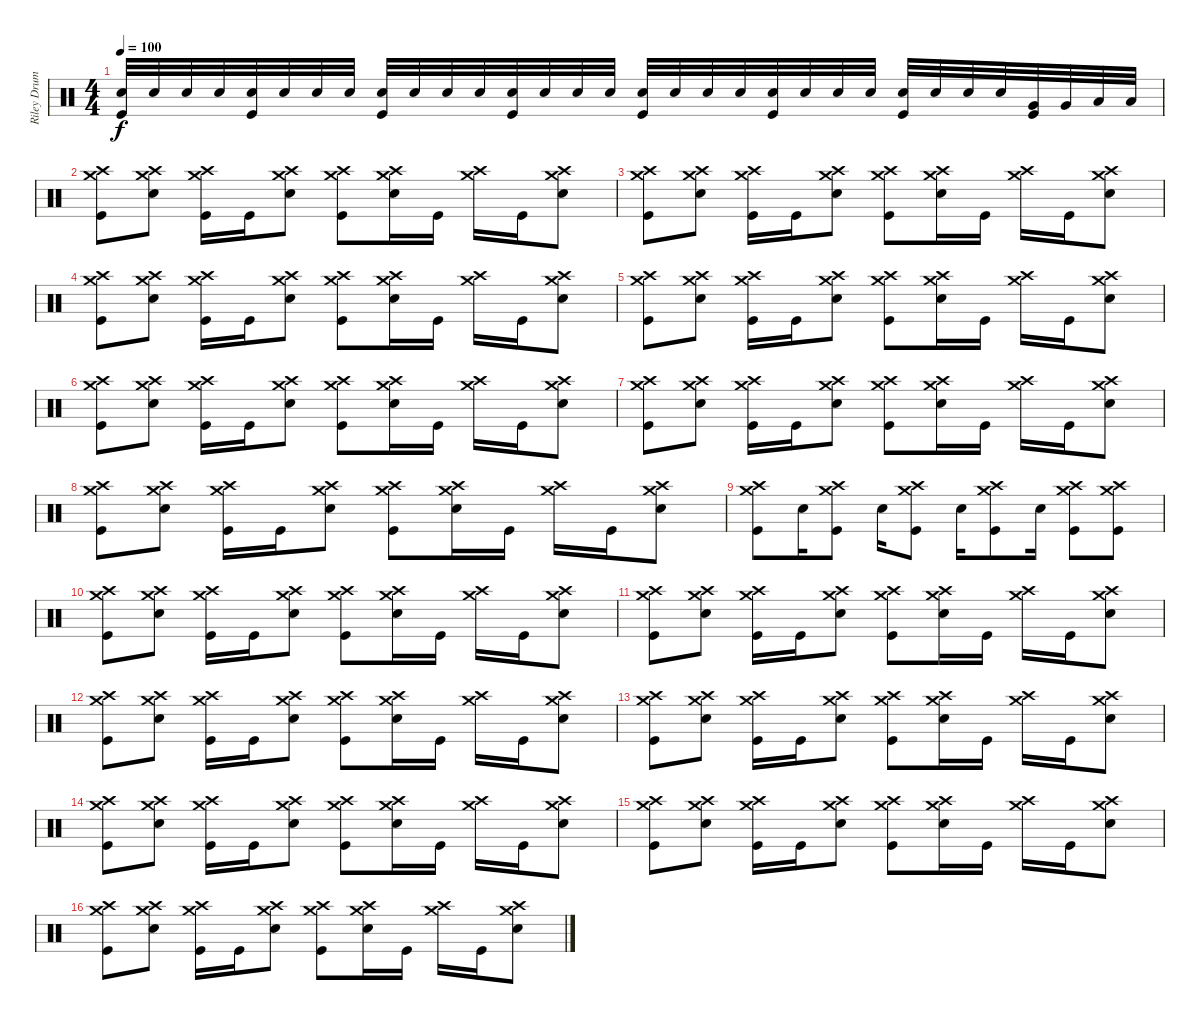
\track ("Riley Drums" "Riley Drum") {instrument percussion}
\staff {score}
\articulation defaults
\ts (4 4)
\tempo 100
\clef neutral
\ks c
("Electric Snare (hit)" "Kick (hit)").32{dy f} "Electric Snare (hit)".32 "Electric Snare (hit)".32 "Electric Snare (hit)".32 ("Electric Snare (hit)" "Kick (hit)").32 "Electric Snare (hit)".32 "Electric Snare (hit)".32 "Electric Snare (hit)".32 ("Electric Snare (hit)" "Kick (hit)").32 "Electric Snare (hit)".32 "Electric Snare (hit)".32 "Electric Snare (hit)".32 ("Electric Snare (hit)" "Kick (hit)").32 "Electric Snare (hit)".32 "Electric Snare (hit)".32 "Electric Snare (hit)".32 ("Electric Snare (hit)" "Kick (hit)").32 "Electric Snare (hit)".32 "Electric Snare (hit)".32 "Electric Snare (hit)".32 ("Electric Snare (hit)" "Kick (hit)").32 "Electric Snare (hit)".32 "Electric Snare (hit)".32 "Electric Snare (hit)".32 ("Electric Snare (hit)" "Kick (hit)").32 "Electric Snare (hit)".32 "Electric Snare (hit)".32 "Electric Snare (hit)".32 ("Very Low Tom (hit)" "Kick (hit)").32 "Very Low Tom (hit)".32 "Low Floor Tom (hit)".32 "Low Floor Tom (hit)".32 |
\section ("" "")
("Crash medium (hit)" "Crash high (hit)" "Kick (hit)").8 ("Crash medium (hit)" "Crash high (hit)" "Electric Snare (hit)").8 ("Crash medium (hit)" "Crash high (hit)" "Kick (hit)").16 "Kick (hit)".16 ("Crash medium (hit)" "Crash high (hit)" "Electric Snare (hit)").8 ("Crash medium (hit)" "Crash high (hit)" "Kick (hit)").8 ("Crash medium (hit)" "Crash high (hit)" "Electric Snare (hit)").16 "Kick (hit)".16 ("Crash medium (hit)" "Crash high (hit)").16 "Kick (hit)".16 ("Crash medium (hit)" "Crash high (hit)" "Electric Snare (hit)").8 |
("Crash medium (hit)" "Crash high (hit)" "Kick (hit)").8 ("Crash medium (hit)" "Crash high (hit)" "Electric Snare (hit)").8 ("Crash medium (hit)" "Crash high (hit)" "Kick (hit)").16 "Kick (hit)".16 ("Crash medium (hit)" "Crash high (hit)" "Electric Snare (hit)").8 ("Crash medium (hit)" "Crash high (hit)" "Kick (hit)").8 ("Crash medium (hit)" "Crash high (hit)" "Electric Snare (hit)").16 "Kick (hit)".16 ("Crash medium (hit)" "Crash high (hit)").16 "Kick (hit)".16 ("Crash medium (hit)" "Crash high (hit)" "Electric Snare (hit)").8 |
("Crash medium (hit)" "Crash high (hit)" "Kick (hit)").8 ("Crash medium (hit)" "Crash high (hit)" "Electric Snare (hit)").8 ("Crash medium (hit)" "Crash high (hit)" "Kick (hit)").16 "Kick (hit)".16 ("Crash medium (hit)" "Crash high (hit)" "Electric Snare (hit)").8 ("Crash medium (hit)" "Crash high (hit)" "Kick (hit)").8 ("Crash medium (hit)" "Crash high (hit)" "Electric Snare (hit)").16 "Kick (hit)".16 ("Crash medium (hit)" "Crash high (hit)").16 "Kick (hit)".16 ("Crash medium (hit)" "Crash high (hit)" "Electric Snare (hit)").8 |
("Crash medium (hit)" "Crash high (hit)" "Kick (hit)").8 ("Crash medium (hit)" "Crash high (hit)" "Electric Snare (hit)").8 ("Crash medium (hit)" "Crash high (hit)" "Kick (hit)").16 "Kick (hit)".16 ("Crash medium (hit)" "Crash high (hit)" "Electric Snare (hit)").8 ("Crash medium (hit)" "Crash high (hit)" "Kick (hit)").8 ("Crash medium (hit)" "Crash high (hit)" "Electric Snare (hit)").16 "Kick (hit)".16 ("Crash medium (hit)" "Crash high (hit)").16 "Kick (hit)".16 ("Crash medium (hit)" "Crash high (hit)" "Electric Snare (hit)").8 |
("Crash medium (hit)" "Crash high (hit)" "Kick (hit)").8 ("Crash medium (hit)" "Crash high (hit)" "Electric Snare (hit)").8 ("Crash medium (hit)" "Crash high (hit)" "Kick (hit)").16 "Kick (hit)".16 ("Crash medium (hit)" "Crash high (hit)" "Electric Snare (hit)").8 ("Crash medium (hit)" "Crash high (hit)" "Kick (hit)").8 ("Crash medium (hit)" "Crash high (hit)" "Electric Snare (hit)").16 "Kick (hit)".16 ("Crash medium (hit)" "Crash high (hit)").16 "Kick (hit)".16 ("Crash medium (hit)" "Crash high (hit)" "Electric Snare (hit)").8 |
("Crash medium (hit)" "Crash high (hit)" "Kick (hit)").8 ("Crash medium (hit)" "Crash high (hit)" "Electric Snare (hit)").8 ("Crash medium (hit)" "Crash high (hit)" "Kick (hit)").16 "Kick (hit)".16 ("Crash medium (hit)" "Crash high (hit)" "Electric Snare (hit)").8 ("Crash medium (hit)" "Crash high (hit)" "Kick (hit)").8 ("Crash medium (hit)" "Crash high (hit)" "Electric Snare (hit)").16 "Kick (hit)".16 ("Crash medium (hit)" "Crash high (hit)").16 "Kick (hit)".16 ("Crash medium (hit)" "Crash high (hit)" "Electric Snare (hit)").8 |
("Crash medium (hit)" "Crash high (hit)" "Kick (hit)").8 ("Crash medium (hit)" "Crash high (hit)" "Electric Snare (hit)").8 ("Crash medium (hit)" "Crash high (hit)" "Kick (hit)").16 "Kick (hit)".16 ("Crash medium (hit)" "Crash high (hit)" "Electric Snare (hit)").8 ("Crash medium (hit)" "Crash high (hit)" "Kick (hit)").8 ("Crash medium (hit)" "Crash high (hit)" "Electric Snare (hit)").16 "Kick (hit)".16 ("Crash medium (hit)" "Crash high (hit)").16 "Kick (hit)".16 ("Crash medium (hit)" "Crash high (hit)" "Electric Snare (hit)").8 |
("Crash medium (hit)" "Crash high (hit)" "Kick (hit)").8 "Electric Snare (hit)".16 ("Crash medium (hit)" "Crash high (hit)" "Kick (hit)").8 "Electric Snare (hit)".16 ("Crash medium (hit)" "Crash high (hit)" "Kick (hit)").8 "Electric Snare (hit)".16 ("Crash medium (hit)" "Crash high (hit)" "Kick (hit)").8 "Electric Snare (hit)".16 ("Crash medium (hit)" "Crash high (hit)" "Kick (hit)").8 ("Crash medium (hit)" "Crash high (hit)" "Kick (hit)").8 |
("Crash medium (hit)" "Crash high (hit)" "Kick (hit)").8 ("Crash medium (hit)" "Crash high (hit)" "Electric Snare (hit)").8 ("Crash medium (hit)" "Crash high (hit)" "Kick (hit)").16 "Kick (hit)".16 ("Crash medium (hit)" "Crash high (hit)" "Electric Snare (hit)").8 ("Crash medium (hit)" "Crash high (hit)" "Kick (hit)").8 ("Crash medium (hit)" "Crash high (hit)" "Electric Snare (hit)").16 "Kick (hit)".16 ("Crash medium (hit)" "Crash high (hit)").16 "Kick (hit)".16 ("Crash medium (hit)" "Crash high (hit)" "Electric Snare (hit)").8 |
("Crash medium (hit)" "Crash high (hit)" "Kick (hit)").8 ("Crash medium (hit)" "Crash high (hit)" "Electric Snare (hit)").8 ("Crash medium (hit)" "Crash high (hit)" "Kick (hit)").16 "Kick (hit)".16 ("Crash medium (hit)" "Crash high (hit)" "Electric Snare (hit)").8 ("Crash medium (hit)" "Crash high (hit)" "Kick (hit)").8 ("Crash medium (hit)" "Crash high (hit)" "Electric Snare (hit)").16 "Kick (hit)".16 ("Crash medium (hit)" "Crash high (hit)").16 "Kick (hit)".16 ("Crash medium (hit)" "Crash high (hit)" "Electric Snare (hit)").8 |
("Crash medium (hit)" "Crash high (hit)" "Kick (hit)").8 ("Crash medium (hit)" "Crash high (hit)" "Electric Snare (hit)").8 ("Crash medium (hit)" "Crash high (hit)" "Kick (hit)").16 "Kick (hit)".16 ("Crash medium (hit)" "Crash high (hit)" "Electric Snare (hit)").8 ("Crash medium (hit)" "Crash high (hit)" "Kick (hit)").8 ("Crash medium (hit)" "Crash high (hit)" "Electric Snare (hit)").16 "Kick (hit)".16 ("Crash medium (hit)" "Crash high (hit)").16 "Kick (hit)".16 ("Crash medium (hit)" "Crash high (hit)" "Electric Snare (hit)").8 |
("Crash medium (hit)" "Crash high (hit)" "Kick (hit)").8 ("Crash medium (hit)" "Crash high (hit)" "Electric Snare (hit)").8 ("Crash medium (hit)" "Crash high (hit)" "Kick (hit)").16 "Kick (hit)".16 ("Crash medium (hit)" "Crash high (hit)" "Electric Snare (hit)").8 ("Crash medium (hit)" "Crash high (hit)" "Kick (hit)").8 ("Crash medium (hit)" "Crash high (hit)" "Electric Snare (hit)").16 "Kick (hit)".16 ("Crash medium (hit)" "Crash high (hit)").16 "Kick (hit)".16 ("Crash medium (hit)" "Crash high (hit)" "Electric Snare (hit)").8 |
("Crash medium (hit)" "Crash high (hit)" "Kick (hit)").8 ("Crash medium (hit)" "Crash high (hit)" "Electric Snare (hit)").8 ("Crash medium (hit)" "Crash high (hit)" "Kick (hit)").16 "Kick (hit)".16 ("Crash medium (hit)" "Crash high (hit)" "Electric Snare (hit)").8 ("Crash medium (hit)" "Crash high (hit)" "Kick (hit)").8 ("Crash medium (hit)" "Crash high (hit)" "Electric Snare (hit)").16 "Kick (hit)".16 ("Crash medium (hit)" "Crash high (hit)").16 "Kick (hit)".16 ("Crash medium (hit)" "Crash high (hit)" "Electric Snare (hit)").8 |
("Crash medium (hit)" "Crash high (hit)" "Kick (hit)").8 ("Crash medium (hit)" "Crash high (hit)" "Electric Snare (hit)").8 ("Crash medium (hit)" "Crash high (hit)" "Kick (hit)").16 "Kick (hit)".16 ("Crash medium (hit)" "Crash high (hit)" "Electric Snare (hit)").8 ("Crash medium (hit)" "Crash high (hit)" "Kick (hit)").8 ("Crash medium (hit)" "Crash high (hit)" "Electric Snare (hit)").16 "Kick (hit)".16 ("Crash medium (hit)" "Crash high (hit)").16 "Kick (hit)".16 ("Crash medium (hit)" "Crash high (hit)" "Electric Snare (hit)").8 |
("Crash medium (hit)" "Crash high (hit)" "Kick (hit)").8 ("Crash medium (hit)" "Crash high (hit)" "Electric Snare (hit)").8 ("Crash medium (hit)" "Crash high (hit)" "Kick (hit)").16 "Kick (hit)".16 ("Crash medium (hit)" "Crash high (hit)" "Electric Snare (hit)").8 ("Crash medium (hit)" "Crash high (hit)" "Kick (hit)").8 ("Crash medium (hit)" "Crash high (hit)" "Electric Snare (hit)").16 "Kick (hit)".16 ("Crash medium (hit)" "Crash high (hit)").16 "Kick (hit)".16 ("Crash medium (hit)" "Crash high (hit)" "Electric Snare (hit)").8
